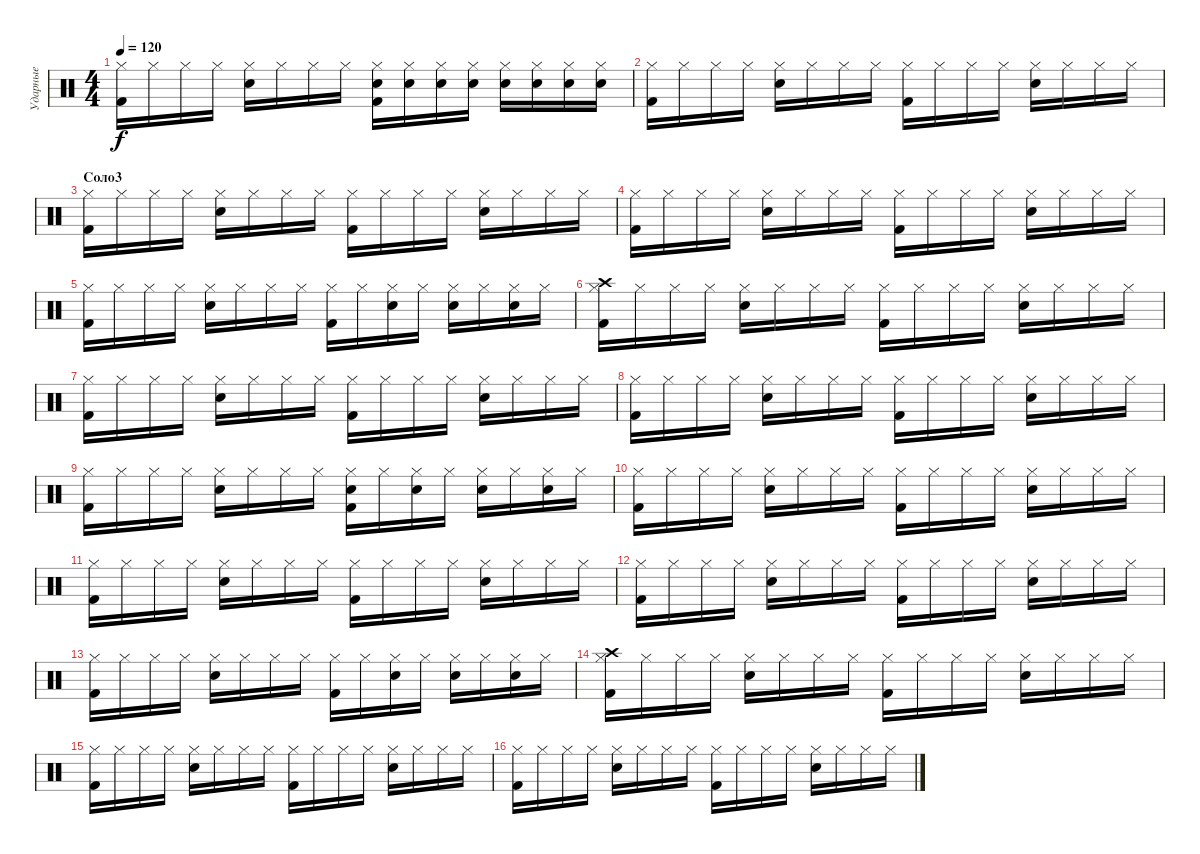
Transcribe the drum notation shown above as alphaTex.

\track ("Ударные" "Ударные") {instrument percussion}
\staff {score}
\articulation defaults
\ts (4 4)
\tempo 120
\clef neutral
\ks c
("Kick (hit) 2" "Hi-Hat (closed)").16{dy f} "Hi-Hat (closed)".16 "Hi-Hat (closed)".16 "Hi-Hat (closed)".16 ("Hi-Hat (closed)" "Snare (hit) 2").16 "Hi-Hat (closed)".16 "Hi-Hat (closed)".16 "Hi-Hat (closed)".16 ("Kick (hit) 2" "Hi-Hat (closed)" "Snare (hit) 2").16 ("Hi-Hat (closed)" "Snare (hit) 2").16 ("Hi-Hat (closed)" "Snare (hit) 2").16 ("Hi-Hat (closed)" "Snare (hit) 2").16 ("Hi-Hat (closed)" "Snare (hit) 2").16 ("Hi-Hat (closed)" "Snare (hit) 2").16 ("Hi-Hat (closed)" "Snare (hit) 2").16 ("Hi-Hat (closed)" "Snare (hit) 2").16 |
("Kick (hit) 2" "Hi-Hat (closed)").16 "Hi-Hat (closed)".16 "Hi-Hat (closed)".16 "Hi-Hat (closed)".16 ("Hi-Hat (closed)" "Snare (hit) 2").16 "Hi-Hat (closed)".16 "Hi-Hat (closed)".16 "Hi-Hat (closed)".16 ("Kick (hit) 2" "Hi-Hat (closed)").16 "Hi-Hat (closed)".16 "Hi-Hat (closed)".16 "Hi-Hat (closed)".16 ("Hi-Hat (closed)" "Snare (hit) 2").16 "Hi-Hat (closed)".16 "Hi-Hat (closed)".16 "Hi-Hat (closed)".16 |
\section ("" "Соло3")
("Kick (hit) 2" "Hi-Hat (closed)").16 "Hi-Hat (closed)".16 "Hi-Hat (closed)".16 "Hi-Hat (closed)".16 ("Hi-Hat (closed)" "Snare (hit) 2").16 "Hi-Hat (closed)".16 "Hi-Hat (closed)".16 "Hi-Hat (closed)".16 ("Kick (hit) 2" "Hi-Hat (closed)").16 "Hi-Hat (closed)".16 "Hi-Hat (closed)".16 "Hi-Hat (closed)".16 ("Hi-Hat (closed)" "Snare (hit) 2").16 "Hi-Hat (closed)".16 "Hi-Hat (closed)".16 "Hi-Hat (closed)".16 |
("Kick (hit) 2" "Hi-Hat (closed)").16 "Hi-Hat (closed)".16 "Hi-Hat (closed)".16 "Hi-Hat (closed)".16 ("Hi-Hat (closed)" "Snare (hit) 2").16 "Hi-Hat (closed)".16 "Hi-Hat (closed)".16 "Hi-Hat (closed)".16 ("Kick (hit) 2" "Hi-Hat (closed)").16 "Hi-Hat (closed)".16 "Hi-Hat (closed)".16 "Hi-Hat (closed)".16 ("Hi-Hat (closed)" "Snare (hit) 2").16 "Hi-Hat (closed)".16 "Hi-Hat (closed)".16 "Hi-Hat (closed)".16 |
("Kick (hit) 2" "Hi-Hat (closed)").16 "Hi-Hat (closed)".16 "Hi-Hat (closed)".16 "Hi-Hat (closed)".16 ("Hi-Hat (closed)" "Snare (hit) 2").16 "Hi-Hat (closed)".16 "Hi-Hat (closed)".16 "Hi-Hat (closed)".16 ("Kick (hit) 2" "Hi-Hat (closed)").16 "Hi-Hat (closed)".16 ("Hi-Hat (closed)" "Snare (hit) 2").16 "Hi-Hat (closed)".16 ("Hi-Hat (closed)" "Snare (hit) 2").16 "Hi-Hat (closed)".16 ("Hi-Hat (closed)" "Snare (hit) 2").16 "Hi-Hat (closed)".16 |
("Kick (hit) 2" "Hi-Hat (closed)" "Crash high (hit)").16 "Hi-Hat (closed)".16 "Hi-Hat (closed)".16 "Hi-Hat (closed)".16 ("Hi-Hat (closed)" "Snare (hit) 2").16 "Hi-Hat (closed)".16 "Hi-Hat (closed)".16 "Hi-Hat (closed)".16 ("Kick (hit) 2" "Hi-Hat (closed)").16 "Hi-Hat (closed)".16 "Hi-Hat (closed)".16 "Hi-Hat (closed)".16 ("Hi-Hat (closed)" "Snare (hit) 2").16 "Hi-Hat (closed)".16 "Hi-Hat (closed)".16 "Hi-Hat (closed)".16 |
("Kick (hit) 2" "Hi-Hat (closed)").16 "Hi-Hat (closed)".16 "Hi-Hat (closed)".16 "Hi-Hat (closed)".16 ("Hi-Hat (closed)" "Snare (hit) 2").16 "Hi-Hat (closed)".16 "Hi-Hat (closed)".16 "Hi-Hat (closed)".16 ("Kick (hit) 2" "Hi-Hat (closed)").16 "Hi-Hat (closed)".16 "Hi-Hat (closed)".16 "Hi-Hat (closed)".16 ("Hi-Hat (closed)" "Snare (hit) 2").16 "Hi-Hat (closed)".16 "Hi-Hat (closed)".16 "Hi-Hat (closed)".16 |
("Kick (hit) 2" "Hi-Hat (closed)").16 "Hi-Hat (closed)".16 "Hi-Hat (closed)".16 "Hi-Hat (closed)".16 ("Hi-Hat (closed)" "Snare (hit) 2").16 "Hi-Hat (closed)".16 "Hi-Hat (closed)".16 "Hi-Hat (closed)".16 ("Kick (hit) 2" "Hi-Hat (closed)").16 "Hi-Hat (closed)".16 "Hi-Hat (closed)".16 "Hi-Hat (closed)".16 ("Hi-Hat (closed)" "Snare (hit) 2").16 "Hi-Hat (closed)".16 "Hi-Hat (closed)".16 "Hi-Hat (closed)".16 |
("Kick (hit) 2" "Hi-Hat (closed)").16 "Hi-Hat (closed)".16 "Hi-Hat (closed)".16 "Hi-Hat (closed)".16 ("Hi-Hat (closed)" "Snare (hit) 2").16 "Hi-Hat (closed)".16 "Hi-Hat (closed)".16 "Hi-Hat (closed)".16 ("Kick (hit) 2" "Hi-Hat (closed)" "Snare (hit) 2").16 "Hi-Hat (closed)".16 ("Hi-Hat (closed)" "Snare (hit) 2").16 "Hi-Hat (closed)".16 ("Hi-Hat (closed)" "Snare (hit) 2").16 "Hi-Hat (closed)".16 ("Hi-Hat (closed)" "Snare (hit) 2").16 "Hi-Hat (closed)".16 |
("Kick (hit) 2" "Hi-Hat (closed)").16 "Hi-Hat (closed)".16 "Hi-Hat (closed)".16 "Hi-Hat (closed)".16 ("Hi-Hat (closed)" "Snare (hit) 2").16 "Hi-Hat (closed)".16 "Hi-Hat (closed)".16 "Hi-Hat (closed)".16 ("Kick (hit) 2" "Hi-Hat (closed)").16 "Hi-Hat (closed)".16 "Hi-Hat (closed)".16 "Hi-Hat (closed)".16 ("Hi-Hat (closed)" "Snare (hit) 2").16 "Hi-Hat (closed)".16 "Hi-Hat (closed)".16 "Hi-Hat (closed)".16 |
("Kick (hit) 2" "Hi-Hat (closed)").16 "Hi-Hat (closed)".16 "Hi-Hat (closed)".16 "Hi-Hat (closed)".16 ("Hi-Hat (closed)" "Snare (hit) 2").16 "Hi-Hat (closed)".16 "Hi-Hat (closed)".16 "Hi-Hat (closed)".16 ("Kick (hit) 2" "Hi-Hat (closed)").16 "Hi-Hat (closed)".16 "Hi-Hat (closed)".16 "Hi-Hat (closed)".16 ("Hi-Hat (closed)" "Snare (hit) 2").16 "Hi-Hat (closed)".16 "Hi-Hat (closed)".16 "Hi-Hat (closed)".16 |
("Kick (hit) 2" "Hi-Hat (closed)").16 "Hi-Hat (closed)".16 "Hi-Hat (closed)".16 "Hi-Hat (closed)".16 ("Hi-Hat (closed)" "Snare (hit) 2").16 "Hi-Hat (closed)".16 "Hi-Hat (closed)".16 "Hi-Hat (closed)".16 ("Kick (hit) 2" "Hi-Hat (closed)").16 "Hi-Hat (closed)".16 "Hi-Hat (closed)".16 "Hi-Hat (closed)".16 ("Hi-Hat (closed)" "Snare (hit) 2").16 "Hi-Hat (closed)".16 "Hi-Hat (closed)".16 "Hi-Hat (closed)".16 |
("Kick (hit) 2" "Hi-Hat (closed)").16 "Hi-Hat (closed)".16 "Hi-Hat (closed)".16 "Hi-Hat (closed)".16 ("Hi-Hat (closed)" "Snare (hit) 2").16 "Hi-Hat (closed)".16 "Hi-Hat (closed)".16 "Hi-Hat (closed)".16 ("Kick (hit) 2" "Hi-Hat (closed)").16 "Hi-Hat (closed)".16 ("Hi-Hat (closed)" "Snare (hit) 2").16 "Hi-Hat (closed)".16 ("Hi-Hat (closed)" "Snare (hit) 2").16 "Hi-Hat (closed)".16 ("Hi-Hat (closed)" "Snare (hit) 2").16 "Hi-Hat (closed)".16 |
("Kick (hit) 2" "Hi-Hat (closed)" "Crash high (hit)").16 "Hi-Hat (closed)".16 "Hi-Hat (closed)".16 "Hi-Hat (closed)".16 ("Hi-Hat (closed)" "Snare (hit) 2").16 "Hi-Hat (closed)".16 "Hi-Hat (closed)".16 "Hi-Hat (closed)".16 ("Kick (hit) 2" "Hi-Hat (closed)").16 "Hi-Hat (closed)".16 "Hi-Hat (closed)".16 "Hi-Hat (closed)".16 ("Hi-Hat (closed)" "Snare (hit) 2").16 "Hi-Hat (closed)".16 "Hi-Hat (closed)".16 "Hi-Hat (closed)".16 |
("Kick (hit) 2" "Hi-Hat (closed)").16 "Hi-Hat (closed)".16 "Hi-Hat (closed)".16 "Hi-Hat (closed)".16 ("Hi-Hat (closed)" "Snare (hit) 2").16 "Hi-Hat (closed)".16 "Hi-Hat (closed)".16 "Hi-Hat (closed)".16 ("Kick (hit) 2" "Hi-Hat (closed)").16 "Hi-Hat (closed)".16 "Hi-Hat (closed)".16 "Hi-Hat (closed)".16 ("Hi-Hat (closed)" "Snare (hit) 2").16 "Hi-Hat (closed)".16 "Hi-Hat (closed)".16 "Hi-Hat (closed)".16 |
("Kick (hit) 2" "Hi-Hat (closed)").16 "Hi-Hat (closed)".16 "Hi-Hat (closed)".16 "Hi-Hat (closed)".16 ("Hi-Hat (closed)" "Snare (hit) 2").16 "Hi-Hat (closed)".16 "Hi-Hat (closed)".16 "Hi-Hat (closed)".16 ("Kick (hit) 2" "Hi-Hat (closed)").16 "Hi-Hat (closed)".16 "Hi-Hat (closed)".16 "Hi-Hat (closed)".16 ("Hi-Hat (closed)" "Snare (hit) 2").16 "Hi-Hat (closed)".16 "Hi-Hat (closed)".16 "Hi-Hat (closed)".16
